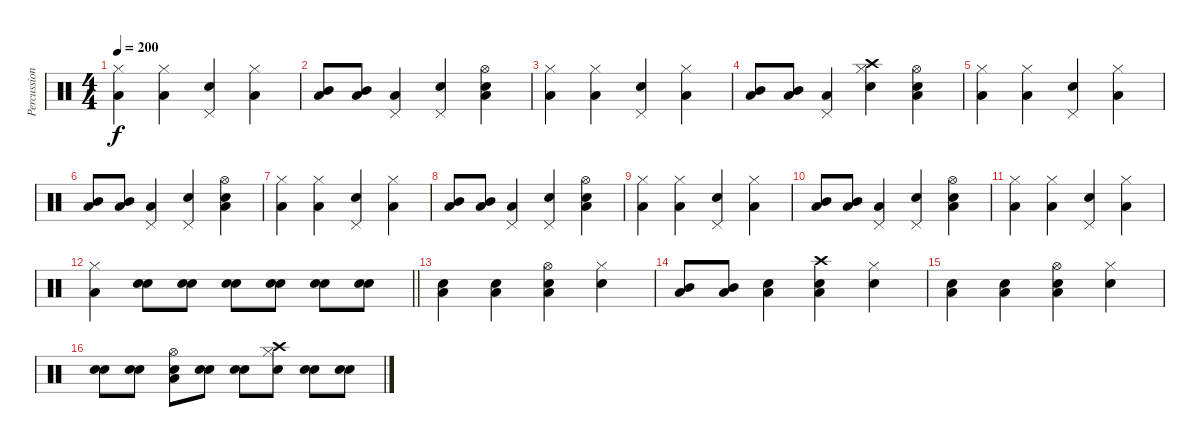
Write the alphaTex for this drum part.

\track ("Percussion" "Percussion") {instrument percussion}
\staff {score}
\articulation defaults
\ts (4 4)
\tempo 200
\clef neutral
\ks c
("Hi-Hat (closed)" "Low Tom (hit)").4{dy f} ("Hi-Hat (closed)" "Low Tom (hit)").4 ("Electric Snare (hit)" "Pedal Hi-Hat (hit)").4 ("Hi-Hat (closed)" "Low Tom (hit)").4 |
("Low Floor Tom (hit)" "Mid Tom (hit)").8 ("Low Floor Tom (hit)" "Mid Tom (hit)").8 ("Pedal Hi-Hat (hit)" "Low Tom (hit)").4 ("Snare (hit) 2" "Pedal Hi-Hat (hit)").4 ("Electric Snare (hit)" "Low Tom (hit)" "Hi-Hat (open)").4 |
("Hi-Hat (closed)" "Low Tom (hit)").4 ("Hi-Hat (closed)" "Low Tom (hit)").4 ("Electric Snare (hit)" "Pedal Hi-Hat (hit)").4 ("Hi-Hat (closed)" "Low Tom (hit)").4 |
("Low Floor Tom (hit)" "Mid Tom (hit)").8 ("Low Floor Tom (hit)" "Mid Tom (hit)").8 ("Pedal Hi-Hat (hit)" "Low Tom (hit)").4 ("Snare (hit) 2" "Hi-Hat (closed)" "Crash high (hit)").4 ("Electric Snare (hit)" "Low Tom (hit)" "Hi-Hat (open)").4 |
("Hi-Hat (closed)" "Low Tom (hit)").4 ("Hi-Hat (closed)" "Low Tom (hit)").4 ("Electric Snare (hit)" "Pedal Hi-Hat (hit)").4 ("Hi-Hat (closed)" "Low Tom (hit)").4 |
("Low Floor Tom (hit)" "Mid Tom (hit)").8 ("Low Floor Tom (hit)" "Mid Tom (hit)").8 ("Pedal Hi-Hat (hit)" "Low Tom (hit)").4 ("Snare (hit) 2" "Pedal Hi-Hat (hit)").4 ("Electric Snare (hit)" "Low Tom (hit)" "Hi-Hat (open)").4 |
("Hi-Hat (closed)" "Low Tom (hit)").4 ("Hi-Hat (closed)" "Low Tom (hit)").4 ("Electric Snare (hit)" "Pedal Hi-Hat (hit)").4 ("Hi-Hat (closed)" "Low Tom (hit)").4 |
("Low Floor Tom (hit)" "Mid Tom (hit)").8 ("Low Floor Tom (hit)" "Mid Tom (hit)").8 ("Pedal Hi-Hat (hit)" "Low Tom (hit)").4 ("Snare (hit) 2" "Pedal Hi-Hat (hit)").4 ("Electric Snare (hit)" "Low Tom (hit)" "Hi-Hat (open)").4 |
("Hi-Hat (closed)" "Low Tom (hit)").4 ("Hi-Hat (closed)" "Low Tom (hit)").4 ("Electric Snare (hit)" "Pedal Hi-Hat (hit)").4 ("Hi-Hat (closed)" "Low Tom (hit)").4 |
("Low Floor Tom (hit)" "Mid Tom (hit)").8 ("Low Floor Tom (hit)" "Mid Tom (hit)").8 ("Pedal Hi-Hat (hit)" "Low Tom (hit)").4 ("Snare (hit) 2" "Pedal Hi-Hat (hit)").4 ("Electric Snare (hit)" "Low Tom (hit)" "Hi-Hat (open)").4 |
("Hi-Hat (closed)" "Low Tom (hit)").4 ("Hi-Hat (closed)" "Low Tom (hit)").4 ("Electric Snare (hit)" "Pedal Hi-Hat (hit)").4 ("Hi-Hat (closed)" "Low Tom (hit)").4 |
\barLineRight lightlight
("Hi-Hat (closed)" "Low Tom (hit)").4 ("Snare (hit) 2" "Electric Snare (hit)").8 ("Snare (hit) 2" "Electric Snare (hit)").8 ("Snare (hit) 2" "Electric Snare (hit)").8 ("Snare (hit) 2" "Electric Snare (hit)").8 ("Snare (hit) 2" "Electric Snare (hit)").8 ("Snare (hit) 2" "Electric Snare (hit)").8 |
("Electric Snare (hit)" "Low Tom (hit)").4 ("Electric Snare (hit)" "Low Tom (hit)").4 ("Snare (hit) 2" "Low Tom (hit)" "Hi-Hat (open)").4 ("Electric Snare (hit)" "Hi-Hat (closed)").4 |
("Mid Tom (hit)" "Low Tom (hit)").8 ("Mid Tom (hit)" "Low Tom (hit)").8 ("Snare (hit) 2" "Low Tom (hit)").4 ("Electric Snare (hit)" "Low Tom (hit)" "Crash high (hit)").4 ("Electric Snare (hit)" "Hi-Hat (closed)").4 |
("Electric Snare (hit)" "Low Tom (hit)").4 ("Electric Snare (hit)" "Low Tom (hit)").4 ("Snare (hit) 2" "Low Tom (hit)" "Hi-Hat (open)").4 ("Electric Snare (hit)" "Hi-Hat (closed)").4 |
("Snare (hit) 2" "Electric Snare (hit)").8 ("Snare (hit) 2" "Electric Snare (hit)").8 ("Electric Snare (hit)" "Low Tom (hit)" "Hi-Hat (open)").8 ("Snare (hit) 2" "Electric Snare (hit)").8 ("Snare (hit) 2" "Electric Snare (hit)").8 ("Electric Snare (hit)" "Hi-Hat (closed)" "Crash high (hit)").8 ("Snare (hit) 2" "Electric Snare (hit)").8 ("Snare (hit) 2" "Electric Snare (hit)").8
